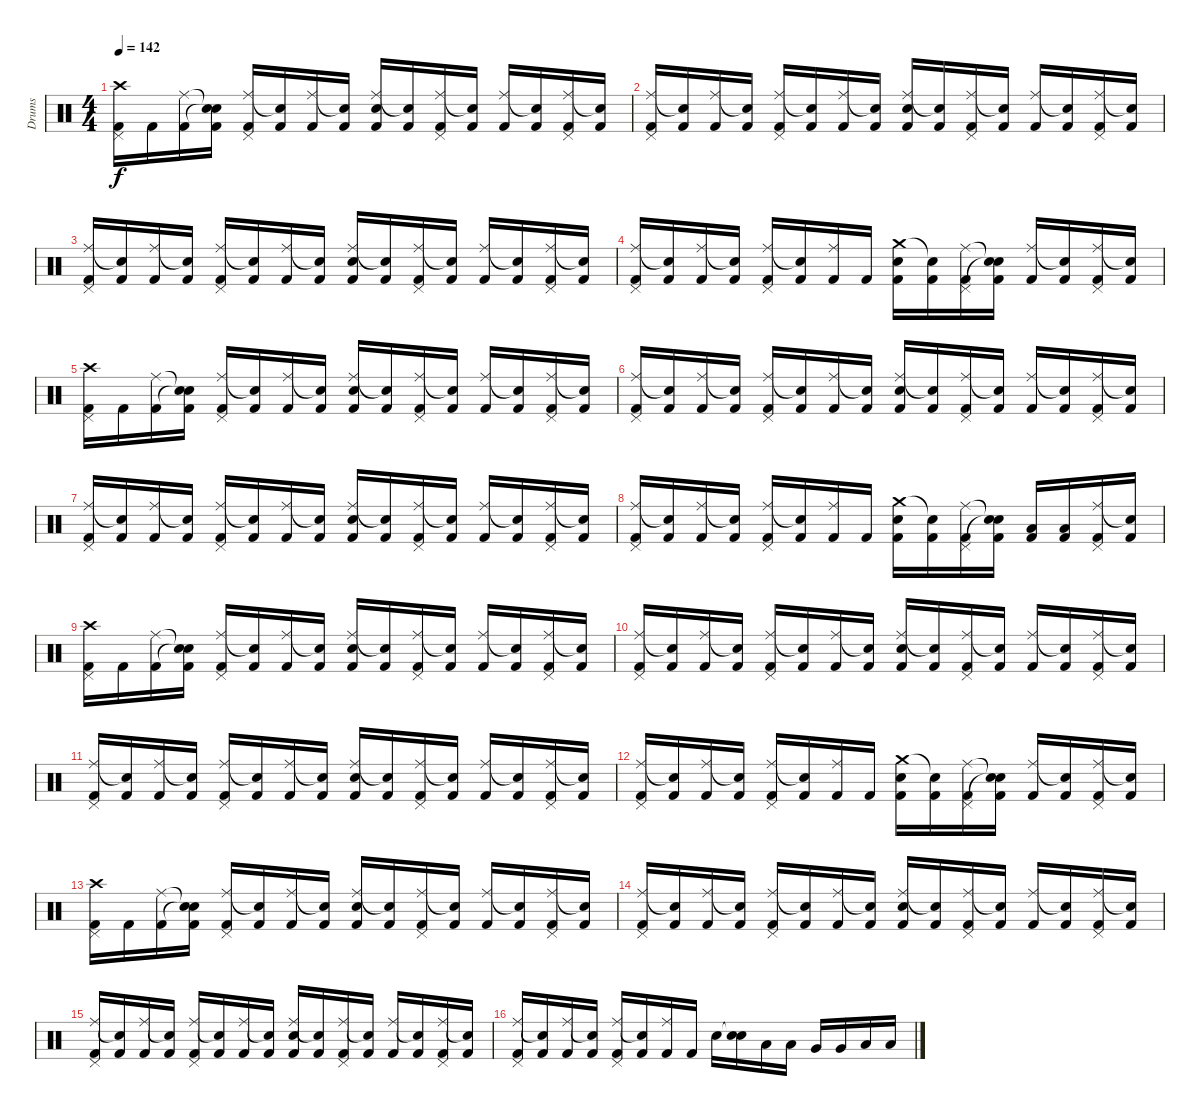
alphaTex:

\track ("Drums" "Drums") {instrument percussion}
\staff {score}
\articulation defaults
\ts (4 4)
\tempo 142
\clef neutral
\ks c
("Crash high (hit)" "Pedal Hi-Hat (hit)" "Kick (hit) 2").16{dy f} "Kick (hit) 2".16 ("Ride (middle)" "Kick (hit) 2").16 ("Snare (hit)"{t} "Snare (hit)"{t} "Kick (hit) 2").16 ("Ride (middle)" "Pedal Hi-Hat (hit)" "Kick (hit) 2").16 ("Snare (hit)"{t} "Kick (hit) 2").16 ("Ride (middle)" "Kick (hit) 2").16 ("Snare (hit)"{t} "Kick (hit) 2").16 ("Ride (middle)" "Snare (hit) 2" "Kick (hit) 2").16 ("Snare (hit)"{t} "Kick (hit) 2").16 ("Ride (middle)" "Pedal Hi-Hat (hit)" "Kick (hit) 2").16 ("Snare (hit)"{t} "Kick (hit) 2").16 ("Ride (middle)" "Kick (hit) 2").16 ("Snare (hit)"{t} "Kick (hit) 2").16 ("Ride (middle)" "Pedal Hi-Hat (hit)" "Kick (hit) 2").16 ("Snare (hit)"{t} "Kick (hit) 2").16 |
("Ride (middle)" "Pedal Hi-Hat (hit)" "Kick (hit) 2").16 ("Snare (hit)"{t} "Kick (hit) 2").16 ("Ride (middle)" "Kick (hit) 2").16 ("Snare (hit)"{t} "Kick (hit) 2").16 ("Ride (middle)" "Pedal Hi-Hat (hit)" "Kick (hit) 2").16 ("Snare (hit)"{t} "Kick (hit) 2").16 ("Ride (middle)" "Kick (hit) 2").16 ("Snare (hit)"{t} "Kick (hit) 2").16 ("Ride (middle)" "Snare (hit) 2" "Kick (hit) 2").16 ("Snare (hit)"{t} "Kick (hit) 2").16 ("Ride (middle)" "Pedal Hi-Hat (hit)" "Kick (hit) 2").16 ("Snare (hit)"{t} "Kick (hit) 2").16 ("Ride (middle)" "Kick (hit) 2").16 ("Snare (hit)"{t} "Kick (hit) 2").16 ("Ride (middle)" "Pedal Hi-Hat (hit)" "Kick (hit) 2").16 ("Snare (hit)"{t} "Kick (hit) 2").16 |
("Ride (middle)" "Pedal Hi-Hat (hit)" "Kick (hit) 2").16 ("Snare (hit)"{t} "Kick (hit) 2").16 ("Ride (middle)" "Kick (hit) 2").16 ("Snare (hit)"{t} "Kick (hit) 2").16 ("Ride (middle)" "Pedal Hi-Hat (hit)" "Kick (hit) 2").16 ("Snare (hit)"{t} "Kick (hit) 2").16 ("Ride (middle)" "Kick (hit) 2").16 ("Snare (hit)"{t} "Kick (hit) 2").16 ("Ride (middle)" "Snare (hit) 2" "Kick (hit) 2").16 ("Snare (hit)"{t} "Kick (hit) 2").16 ("Ride (middle)" "Pedal Hi-Hat (hit)" "Kick (hit) 2").16 ("Snare (hit)"{t} "Kick (hit) 2").16 ("Ride (middle)" "Kick (hit) 2").16 ("Snare (hit)"{t} "Kick (hit) 2").16 ("Ride (middle)" "Pedal Hi-Hat (hit)" "Kick (hit) 2").16 ("Snare (hit)"{t} "Kick (hit) 2").16 |
("Ride (middle)" "Pedal Hi-Hat (hit)" "Kick (hit) 2").16 ("Snare (hit)"{t} "Kick (hit) 2").16 ("Ride (middle)" "Kick (hit) 2").16 ("Snare (hit)"{t} "Kick (hit) 2").16 ("Ride (middle)" "Pedal Hi-Hat (hit)" "Kick (hit) 2").16 ("Snare (hit)"{t} "Kick (hit) 2").16 ("Ride (middle)" "Kick (hit) 2").16 "Kick (hit) 2".16 ("Crash medium (hit)" "Snare (hit) 2" "Kick (hit) 2").16 ("Snare (hit)"{t} "Kick (hit) 2").16 ("Ride (middle)" "Pedal Hi-Hat (hit)" "Kick (hit) 2").16 ("Snare (hit)"{t} "Snare (hit)"{t} "Kick (hit) 2").16 ("Ride (middle)" "Kick (hit) 2").16 ("Snare (hit)"{t} "Kick (hit) 2").16 ("Ride (middle)" "Pedal Hi-Hat (hit)" "Kick (hit) 2").16 ("Snare (hit)"{t} "Kick (hit) 2").16 |
("Crash high (hit)" "Pedal Hi-Hat (hit)" "Kick (hit) 2").16 "Kick (hit) 2".16 ("Ride (middle)" "Kick (hit) 2").16 ("Snare (hit)"{t} "Snare (hit)"{t} "Kick (hit) 2").16 ("Ride (middle)" "Pedal Hi-Hat (hit)" "Kick (hit) 2").16 ("Snare (hit)"{t} "Kick (hit) 2").16 ("Ride (middle)" "Kick (hit) 2").16 ("Snare (hit)"{t} "Kick (hit) 2").16 ("Ride (middle)" "Snare (hit) 2" "Kick (hit) 2").16 ("Snare (hit)"{t} "Kick (hit) 2").16 ("Ride (middle)" "Pedal Hi-Hat (hit)" "Kick (hit) 2").16 ("Snare (hit)"{t} "Kick (hit) 2").16 ("Ride (middle)" "Kick (hit) 2").16 ("Snare (hit)"{t} "Kick (hit) 2").16 ("Ride (middle)" "Pedal Hi-Hat (hit)" "Kick (hit) 2").16 ("Snare (hit)"{t} "Kick (hit) 2").16 |
("Ride (middle)" "Pedal Hi-Hat (hit)" "Kick (hit) 2").16 ("Snare (hit)"{t} "Kick (hit) 2").16 ("Ride (middle)" "Kick (hit) 2").16 ("Snare (hit)"{t} "Kick (hit) 2").16 ("Ride (middle)" "Pedal Hi-Hat (hit)" "Kick (hit) 2").16 ("Snare (hit)"{t} "Kick (hit) 2").16 ("Ride (middle)" "Kick (hit) 2").16 ("Snare (hit)"{t} "Kick (hit) 2").16 ("Ride (middle)" "Snare (hit) 2" "Kick (hit) 2").16 ("Snare (hit)"{t} "Kick (hit) 2").16 ("Ride (middle)" "Pedal Hi-Hat (hit)" "Kick (hit) 2").16 ("Snare (hit)"{t} "Kick (hit) 2").16 ("Ride (middle)" "Kick (hit) 2").16 ("Snare (hit)"{t} "Kick (hit) 2").16 ("Ride (middle)" "Pedal Hi-Hat (hit)" "Kick (hit) 2").16 ("Snare (hit)"{t} "Kick (hit) 2").16 |
("Ride (middle)" "Pedal Hi-Hat (hit)" "Kick (hit) 2").16 ("Snare (hit)"{t} "Kick (hit) 2").16 ("Ride (middle)" "Kick (hit) 2").16 ("Snare (hit)"{t} "Kick (hit) 2").16 ("Ride (middle)" "Pedal Hi-Hat (hit)" "Kick (hit) 2").16 ("Snare (hit)"{t} "Kick (hit) 2").16 ("Ride (middle)" "Kick (hit) 2").16 ("Snare (hit)"{t} "Kick (hit) 2").16 ("Ride (middle)" "Snare (hit) 2" "Kick (hit) 2").16 ("Snare (hit)"{t} "Kick (hit) 2").16 ("Ride (middle)" "Pedal Hi-Hat (hit)" "Kick (hit) 2").16 ("Snare (hit)"{t} "Kick (hit) 2").16 ("Ride (middle)" "Kick (hit) 2").16 ("Snare (hit)"{t} "Kick (hit) 2").16 ("Ride (middle)" "Pedal Hi-Hat (hit)" "Kick (hit) 2").16 ("Snare (hit)"{t} "Kick (hit) 2").16 |
("Ride (middle)" "Pedal Hi-Hat (hit)" "Kick (hit) 2").16 ("Snare (hit)"{t} "Kick (hit) 2").16 ("Ride (middle)" "Kick (hit) 2").16 ("Snare (hit)"{t} "Kick (hit) 2").16 ("Ride (middle)" "Pedal Hi-Hat (hit)" "Kick (hit) 2").16 ("Snare (hit)"{t} "Kick (hit) 2").16 ("Ride (middle)" "Kick (hit) 2").16 "Kick (hit) 2".16 ("Crash medium (hit)" "Snare (hit) 2" "Kick (hit) 2").16 ("Snare (hit)"{t} "Kick (hit) 2").16 ("Ride (middle)" "Pedal Hi-Hat (hit)" "Kick (hit) 2").16 ("Snare (hit)"{t} "Snare (hit)"{t} "Kick (hit) 2").16 ("Low Tom (hit)" "Kick (hit) 2").16 ("Low Tom (hit)" "Kick (hit) 2").16 ("Ride (middle)" "Pedal Hi-Hat (hit)" "Kick (hit) 2").16 ("Snare (hit)"{t} "Kick (hit) 2").16 |
("Crash high (hit)" "Pedal Hi-Hat (hit)" "Kick (hit) 2").16 "Kick (hit) 2".16 ("Ride (middle)" "Kick (hit) 2").16 ("Snare (hit)"{t} "Snare (hit)"{t} "Kick (hit) 2").16 ("Ride (middle)" "Pedal Hi-Hat (hit)" "Kick (hit) 2").16 ("Snare (hit)"{t} "Kick (hit) 2").16 ("Ride (middle)" "Kick (hit) 2").16 ("Snare (hit)"{t} "Kick (hit) 2").16 ("Ride (middle)" "Snare (hit) 2" "Kick (hit) 2").16 ("Snare (hit)"{t} "Kick (hit) 2").16 ("Ride (middle)" "Pedal Hi-Hat (hit)" "Kick (hit) 2").16 ("Snare (hit)"{t} "Kick (hit) 2").16 ("Ride (middle)" "Kick (hit) 2").16 ("Snare (hit)"{t} "Kick (hit) 2").16 ("Ride (middle)" "Pedal Hi-Hat (hit)" "Kick (hit) 2").16 ("Snare (hit)"{t} "Kick (hit) 2").16 |
("Ride (middle)" "Pedal Hi-Hat (hit)" "Kick (hit) 2").16 ("Snare (hit)"{t} "Kick (hit) 2").16 ("Ride (middle)" "Kick (hit) 2").16 ("Snare (hit)"{t} "Kick (hit) 2").16 ("Ride (middle)" "Pedal Hi-Hat (hit)" "Kick (hit) 2").16 ("Snare (hit)"{t} "Kick (hit) 2").16 ("Ride (middle)" "Kick (hit) 2").16 ("Snare (hit)"{t} "Kick (hit) 2").16 ("Ride (middle)" "Snare (hit) 2" "Kick (hit) 2").16 ("Snare (hit)"{t} "Kick (hit) 2").16 ("Ride (middle)" "Pedal Hi-Hat (hit)" "Kick (hit) 2").16 ("Snare (hit)"{t} "Kick (hit) 2").16 ("Ride (middle)" "Kick (hit) 2").16 ("Snare (hit)"{t} "Kick (hit) 2").16 ("Ride (middle)" "Pedal Hi-Hat (hit)" "Kick (hit) 2").16 ("Snare (hit)"{t} "Kick (hit) 2").16 |
("Ride (middle)" "Pedal Hi-Hat (hit)" "Kick (hit) 2").16 ("Snare (hit)"{t} "Kick (hit) 2").16 ("Ride (middle)" "Kick (hit) 2").16 ("Snare (hit)"{t} "Kick (hit) 2").16 ("Ride (middle)" "Pedal Hi-Hat (hit)" "Kick (hit) 2").16 ("Snare (hit)"{t} "Kick (hit) 2").16 ("Ride (middle)" "Kick (hit) 2").16 ("Snare (hit)"{t} "Kick (hit) 2").16 ("Ride (middle)" "Snare (hit) 2" "Kick (hit) 2").16 ("Snare (hit)"{t} "Kick (hit) 2").16 ("Ride (middle)" "Pedal Hi-Hat (hit)" "Kick (hit) 2").16 ("Snare (hit)"{t} "Kick (hit) 2").16 ("Ride (middle)" "Kick (hit) 2").16 ("Snare (hit)"{t} "Kick (hit) 2").16 ("Ride (middle)" "Pedal Hi-Hat (hit)" "Kick (hit) 2").16 ("Snare (hit)"{t} "Kick (hit) 2").16 |
("Ride (middle)" "Pedal Hi-Hat (hit)" "Kick (hit) 2").16 ("Snare (hit)"{t} "Kick (hit) 2").16 ("Ride (middle)" "Kick (hit) 2").16 ("Snare (hit)"{t} "Kick (hit) 2").16 ("Ride (middle)" "Pedal Hi-Hat (hit)" "Kick (hit) 2").16 ("Snare (hit)"{t} "Kick (hit) 2").16 ("Ride (middle)" "Kick (hit) 2").16 "Kick (hit) 2".16 ("Crash medium (hit)" "Snare (hit) 2" "Kick (hit) 2").16 ("Snare (hit)"{t} "Kick (hit) 2").16 ("Ride (middle)" "Pedal Hi-Hat (hit)" "Kick (hit) 2").16 ("Snare (hit)"{t} "Snare (hit)"{t} "Kick (hit) 2").16 ("Ride (middle)" "Kick (hit) 2").16 ("Snare (hit)"{t} "Kick (hit) 2").16 ("Ride (middle)" "Pedal Hi-Hat (hit)" "Kick (hit) 2").16 ("Snare (hit)"{t} "Kick (hit) 2").16 |
("Crash high (hit)" "Pedal Hi-Hat (hit)" "Kick (hit) 2").16 "Kick (hit) 2".16 ("Ride (middle)" "Kick (hit) 2").16 ("Snare (hit)"{t} "Snare (hit)"{t} "Kick (hit) 2").16 ("Ride (middle)" "Pedal Hi-Hat (hit)" "Kick (hit) 2").16 ("Snare (hit)"{t} "Kick (hit) 2").16 ("Ride (middle)" "Kick (hit) 2").16 ("Snare (hit)"{t} "Kick (hit) 2").16 ("Ride (middle)" "Snare (hit) 2" "Kick (hit) 2").16 ("Snare (hit)"{t} "Kick (hit) 2").16 ("Ride (middle)" "Pedal Hi-Hat (hit)" "Kick (hit) 2").16 ("Snare (hit)"{t} "Kick (hit) 2").16 ("Ride (middle)" "Kick (hit) 2").16 ("Snare (hit)"{t} "Kick (hit) 2").16 ("Ride (middle)" "Pedal Hi-Hat (hit)" "Kick (hit) 2").16 ("Snare (hit)"{t} "Kick (hit) 2").16 |
("Ride (middle)" "Pedal Hi-Hat (hit)" "Kick (hit) 2").16 ("Snare (hit)"{t} "Kick (hit) 2").16 ("Ride (middle)" "Kick (hit) 2").16 ("Snare (hit)"{t} "Kick (hit) 2").16 ("Ride (middle)" "Pedal Hi-Hat (hit)" "Kick (hit) 2").16 ("Snare (hit)"{t} "Kick (hit) 2").16 ("Ride (middle)" "Kick (hit) 2").16 ("Snare (hit)"{t} "Kick (hit) 2").16 ("Ride (middle)" "Snare (hit) 2" "Kick (hit) 2").16 ("Snare (hit)"{t} "Kick (hit) 2").16 ("Ride (middle)" "Pedal Hi-Hat (hit)" "Kick (hit) 2").16 ("Snare (hit)"{t} "Kick (hit) 2").16 ("Ride (middle)" "Kick (hit) 2").16 ("Snare (hit)"{t} "Kick (hit) 2").16 ("Ride (middle)" "Pedal Hi-Hat (hit)" "Kick (hit) 2").16 ("Snare (hit)"{t} "Kick (hit) 2").16 |
("Ride (middle)" "Pedal Hi-Hat (hit)" "Kick (hit) 2").16 ("Snare (hit)"{t} "Kick (hit) 2").16 ("Ride (middle)" "Kick (hit) 2").16 ("Snare (hit)"{t} "Kick (hit) 2").16 ("Ride (middle)" "Pedal Hi-Hat (hit)" "Kick (hit) 2").16 ("Snare (hit)"{t} "Kick (hit) 2").16 ("Ride (middle)" "Kick (hit) 2").16 ("Snare (hit)"{t} "Kick (hit) 2").16 ("Ride (middle)" "Snare (hit) 2" "Kick (hit) 2").16 ("Snare (hit)"{t} "Kick (hit) 2").16 ("Ride (middle)" "Pedal Hi-Hat (hit)" "Kick (hit) 2").16 ("Snare (hit)"{t} "Kick (hit) 2").16 ("Ride (middle)" "Kick (hit) 2").16 ("Snare (hit)"{t} "Kick (hit) 2").16 ("Ride (middle)" "Pedal Hi-Hat (hit)" "Kick (hit) 2").16 ("Snare (hit)"{t} "Kick (hit) 2").16 |
("Ride (middle)" "Pedal Hi-Hat (hit)" "Kick (hit) 2").16 ("Snare (hit)"{t} "Kick (hit) 2").16 ("Ride (middle)" "Kick (hit) 2").16 ("Snare (hit)"{t} "Kick (hit) 2").16 ("Ride (middle)" "Pedal Hi-Hat (hit)" "Kick (hit) 2").16 ("Snare (hit)"{t} "Kick (hit) 2").16 ("Ride (middle)" "Kick (hit) 2").16 "Kick (hit) 2".16 "Snare (hit) 2".16 ("Snare (hit)"{t} "Snare (hit) 2").16 "Low Tom (hit)".16 "Low Tom (hit)".16 "Very Low Tom (hit)".16 "Very Low Tom (hit)".16 "Low Floor Tom (hit)".16 "Low Floor Tom (hit)".16
